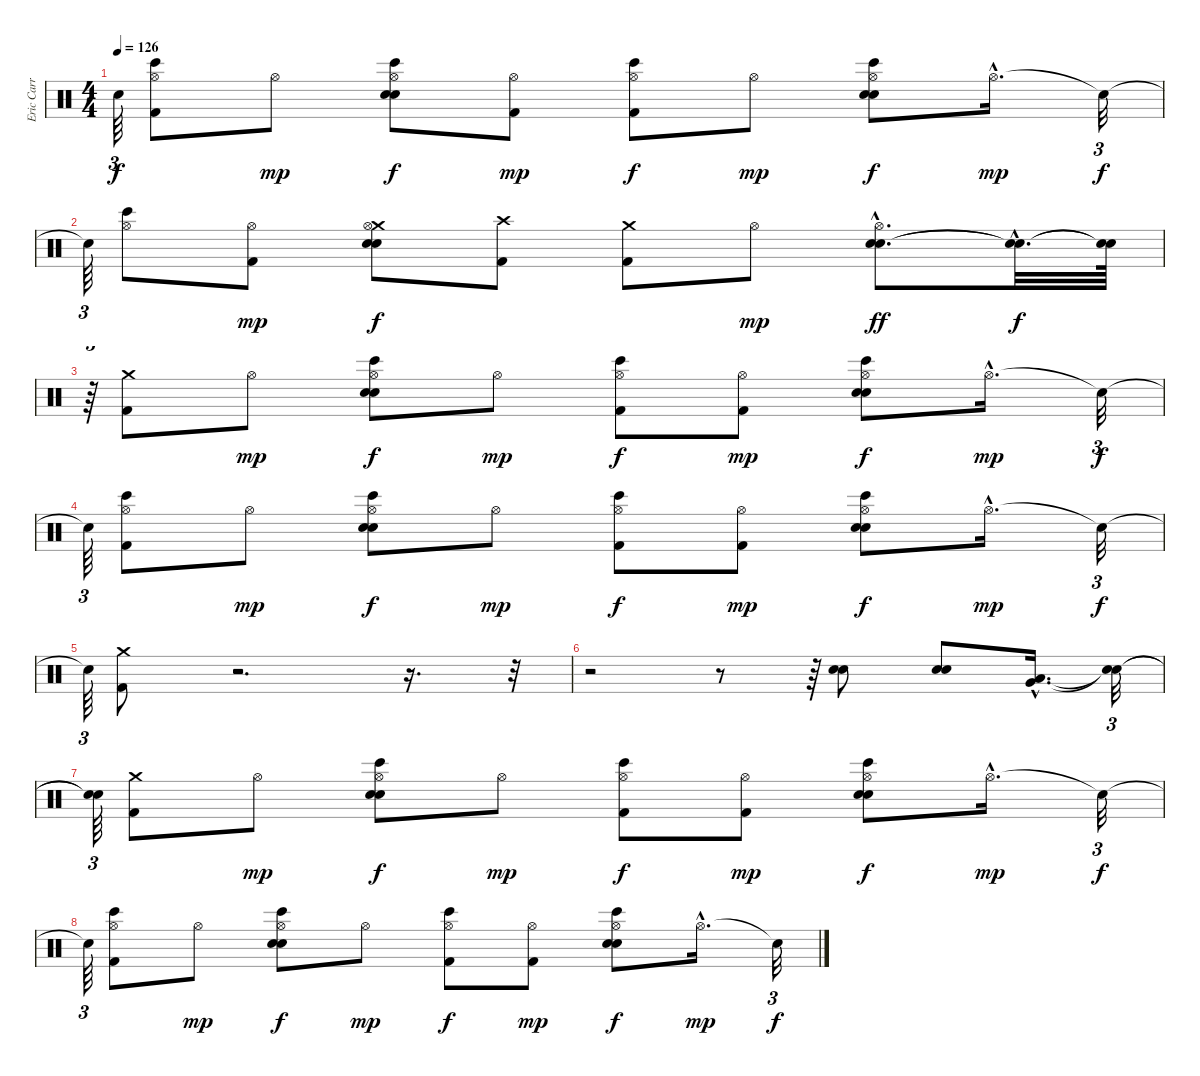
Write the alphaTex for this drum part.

\track ("Eric Carr" "Eric Carr") {instrument percussion}
\staff {score}
\articulation defaults
\ts (4 4)
\tempo 126
\clef neutral
\ks c "Snare (hit)"{t}.64{tu (3 2) dy f}
("Bongo High (hit)" "Hi-Hat (open)" "Kick (hit) 2").8 "Hi-Hat (open)".8{dy mp} ("Bongo High (hit)" "Hi-Hat (open)" "Snare (hit) 2" "Electric Snare (hit)").8{dy f} ("Kick (hit) 2" "Hi-Hat (open)").8{dy mp} ("Bongo High (hit)" "Kick (hit) 2" "Hi-Hat (open)").8{dy f} "Hi-Hat (open)".8{dy mp} ("Bongo High (hit)" "Electric Snare (hit)" "Snare (hit) 2" "Hi-Hat (open)").8{dy f} "Hi-Hat (open)"{hac}.16{d dy mp} "Snare (hit)"{t}.32{tu (3 2) dy f} |
"Snare (hit)"{t}.64{tu (3 2)} ("Bongo High (hit)" "Hi-Hat (open)").8 ("Kick (hit) 2" "Hi-Hat (open)").8{dy mp} ("Crash medium (hit)" "Hi-Hat (open)" "Snare (hit) 2" "Electric Snare (hit)").8{dy f} ("Kick (hit) 2" "Crash high (hit)").8 ("Crash medium (hit)" "Kick (hit) 2").8 "Hi-Hat (open)".8{dy mp} ("Electric Snare (hit)"{hac} "Snare (hit) 2"{hac} "Hi-Hat (open)").8{d dy ff} ("Snare (hit)"{hac t} "Snare (hit)"{hac t}).32{d dy f} ("Snare (hit)"{t} "Snare (hit)"{t}).64 |
r.64{tu (3 2)} ("Crash medium (hit)" "Kick (hit) 2").8 "Hi-Hat (open)".8{dy mp} ("Bongo High (hit)" "Hi-Hat (open)" "Snare (hit) 2" "Electric Snare (hit)").8{dy f} "Hi-Hat (open)".8{dy mp} ("Bongo High (hit)" "Kick (hit) 2" "Hi-Hat (open)").8{dy f} ("Kick (hit) 2" "Hi-Hat (open)").8{dy mp} ("Bongo High (hit)" "Electric Snare (hit)" "Snare (hit) 2" "Hi-Hat (open)").8{dy f} "Hi-Hat (open)"{hac}.16{d dy mp} "Snare (hit)"{t}.32{tu (3 2) dy f} |
"Snare (hit)"{t}.64{tu (3 2)} ("Bongo High (hit)" "Kick (hit) 2" "Hi-Hat (open)").8 "Hi-Hat (open)".8{dy mp} ("Bongo High (hit)" "Hi-Hat (open)" "Snare (hit) 2" "Electric Snare (hit)").8{dy f} "Hi-Hat (open)".8{dy mp} ("Bongo High (hit)" "Kick (hit) 2" "Hi-Hat (open)").8{dy f} ("Kick (hit) 2" "Hi-Hat (open)").8{dy mp} ("Bongo High (hit)" "Electric Snare (hit)" "Snare (hit) 2" "Hi-Hat (open)").8{dy f} "Hi-Hat (open)"{hac}.16{d dy mp} "Snare (hit)"{t}.32{tu (3 2) dy f} |
"Snare (hit)"{t}.64{tu (3 2)} ("Kick (hit) 2" "Crash medium (hit)").8 r.2{d} r.16{d} r.32{tu (3 2)} |
r.2 r.8 r.64{tu (3 2)} ("Electric Snare (hit)" "Snare (hit) 2").8 ("Snare (hit) 2" "Electric Snare (hit)").8 ("Very Low Tom (hit)"{hac} "Low Tom (hit)"{hac}).16{d} ("Snare (hit)"{t} "Snare (hit)"{t}).32{tu (3 2)} |
("Snare (hit)"{t} "Snare (hit)"{t}).64{tu (3 2)} ("Crash medium (hit)" "Kick (hit) 2").8 "Hi-Hat (open)".8{dy mp} ("Bongo High (hit)" "Hi-Hat (open)" "Snare (hit) 2" "Electric Snare (hit)").8{dy f} "Hi-Hat (open)".8{dy mp} ("Bongo High (hit)" "Kick (hit) 2" "Hi-Hat (open)").8{dy f} ("Kick (hit) 2" "Hi-Hat (open)").8{dy mp} ("Bongo High (hit)" "Electric Snare (hit)" "Snare (hit) 2" "Hi-Hat (open)").8{dy f} "Hi-Hat (open)"{hac}.16{d dy mp} "Snare (hit)"{t}.32{tu (3 2) dy f} |
"Snare (hit)"{t}.64{tu (3 2)} ("Bongo High (hit)" "Kick (hit) 2" "Hi-Hat (open)").8 "Hi-Hat (open)".8{dy mp} ("Bongo High (hit)" "Hi-Hat (open)" "Snare (hit) 2" "Electric Snare (hit)").8{dy f} "Hi-Hat (open)".8{dy mp} ("Bongo High (hit)" "Kick (hit) 2" "Hi-Hat (open)").8{dy f} ("Kick (hit) 2" "Hi-Hat (open)").8{dy mp} ("Bongo High (hit)" "Electric Snare (hit)" "Snare (hit) 2" "Hi-Hat (open)").8{dy f} "Hi-Hat (open)"{hac}.16{d dy mp} "Snare (hit)"{t}.32{tu (3 2) dy f}
